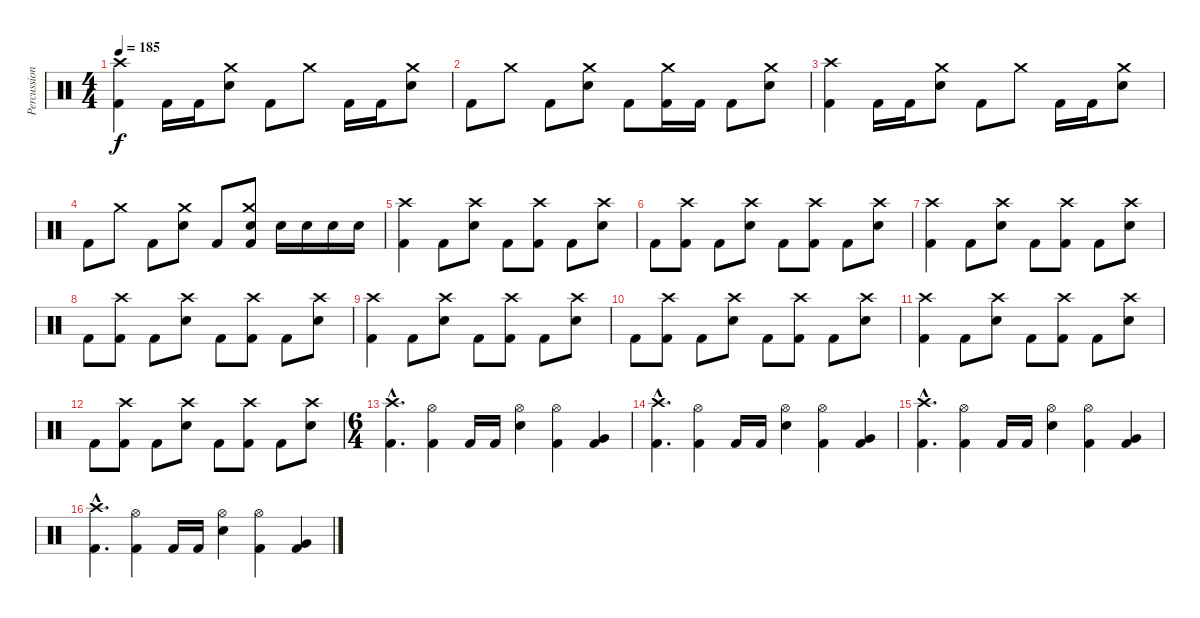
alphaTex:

\track ("Percussion" "Percussion") {instrument percussion}
\staff {score}
\articulation defaults
\ts (4 4)
\tempo 185
\clef neutral
\ks c
("Crash high (hit)" "Kick (hit) 2").4{dy f} "Kick (hit) 2".16 "Kick (hit) 2".16 ("Crash medium (hit)" "Electric Snare (hit)").8 "Kick (hit) 2".8 "Crash medium (hit)".8 "Kick (hit) 2".16 "Kick (hit) 2".16 ("Crash medium (hit)" "Electric Snare (hit)").8 |
"Kick (hit) 2".8 "Crash medium (hit)".8 "Kick (hit) 2".8 ("Crash medium (hit)" "Electric Snare (hit)").8 "Kick (hit) 2".8 ("Crash medium (hit)" "Kick (hit) 2").16 "Kick (hit) 2".16 "Kick (hit) 2".8 ("Crash medium (hit)" "Electric Snare (hit)").8 |
("Crash high (hit)" "Kick (hit) 2").4 "Kick (hit) 2".16 "Kick (hit) 2".16 ("Crash medium (hit)" "Electric Snare (hit)").8 "Kick (hit) 2".8 "Crash medium (hit)".8 "Kick (hit) 2".16 "Kick (hit) 2".16 ("Crash medium (hit)" "Electric Snare (hit)").8 |
"Kick (hit) 2".8 "Crash medium (hit)".8 "Kick (hit) 2".8 ("Crash medium (hit)" "Electric Snare (hit)").8 "Kick (hit) 2".8 ("Crash medium (hit)" "Electric Snare (hit)" "Kick (hit) 2").8 "Electric Snare (hit)".16 "Electric Snare (hit)".16 "Electric Snare (hit)".16 "Electric Snare (hit)".16 |
("Crash high (hit)" "Kick (hit) 2").4 "Kick (hit) 2".8 ("Crash high (hit)" "Electric Snare (hit)").8 "Kick (hit) 2".8 ("Crash high (hit)" "Kick (hit) 2").8 "Kick (hit) 2".8 ("Crash high (hit)" "Electric Snare (hit)").8 |
"Kick (hit) 2".8 ("Crash high (hit)" "Kick (hit) 2").8 "Kick (hit) 2".8 ("Crash high (hit)" "Electric Snare (hit)").8 "Kick (hit) 2".8 ("Crash high (hit)" "Kick (hit) 2").8 "Kick (hit) 2".8 ("Crash high (hit)" "Electric Snare (hit)").8 |
("Crash high (hit)" "Kick (hit) 2").4 "Kick (hit) 2".8 ("Crash high (hit)" "Electric Snare (hit)").8 "Kick (hit) 2".8 ("Crash high (hit)" "Kick (hit) 2").8 "Kick (hit) 2".8 ("Crash high (hit)" "Electric Snare (hit)").8 |
"Kick (hit) 2".8 ("Crash high (hit)" "Kick (hit) 2").8 "Kick (hit) 2".8 ("Crash high (hit)" "Electric Snare (hit)").8 "Kick (hit) 2".8 ("Crash high (hit)" "Kick (hit) 2").8 "Kick (hit) 2".8 ("Crash high (hit)" "Electric Snare (hit)").8 |
("Crash high (hit)" "Kick (hit) 2").4 "Kick (hit) 2".8 ("Crash high (hit)" "Electric Snare (hit)").8 "Kick (hit) 2".8 ("Crash high (hit)" "Kick (hit) 2").8 "Kick (hit) 2".8 ("Crash high (hit)" "Electric Snare (hit)").8 |
"Kick (hit) 2".8 ("Crash high (hit)" "Kick (hit) 2").8 "Kick (hit) 2".8 ("Crash high (hit)" "Electric Snare (hit)").8 "Kick (hit) 2".8 ("Crash high (hit)" "Kick (hit) 2").8 "Kick (hit) 2".8 ("Crash high (hit)" "Electric Snare (hit)").8 |
("Crash high (hit)" "Kick (hit) 2").4 "Kick (hit) 2".8 ("Crash high (hit)" "Electric Snare (hit)").8 "Kick (hit) 2".8 ("Crash high (hit)" "Kick (hit) 2").8 "Kick (hit) 2".8 ("Crash high (hit)" "Electric Snare (hit)").8 |
"Kick (hit) 2".8 ("Crash high (hit)" "Kick (hit) 2").8 "Kick (hit) 2".8 ("Crash high (hit)" "Electric Snare (hit)").8 "Kick (hit) 2".8 ("Crash high (hit)" "Kick (hit) 2").8 "Kick (hit) 2".8 ("Crash high (hit)" "Electric Snare (hit)").8 |
\ts (6 4)
("Crash high (hit)"{hac} "Kick (hit) 2"{hac}).4{d} ("Hi-Hat (open)" "Kick (hit) 2").4 "Kick (hit) 2".16 "Kick (hit) 2".16 ("Hi-Hat (open)" "Electric Snare (hit)").4 ("Hi-Hat (open)" "Kick (hit) 2").4 ("Very Low Tom (hit)" "Kick (hit) 2").4 |
("Crash high (hit)"{hac} "Kick (hit) 2"{hac}).4{d} ("Hi-Hat (open)" "Kick (hit) 2").4 "Kick (hit) 2".16 "Kick (hit) 2".16 ("Hi-Hat (open)" "Electric Snare (hit)").4 ("Hi-Hat (open)" "Kick (hit) 2").4 ("Very Low Tom (hit)" "Kick (hit) 2").4 |
("Crash high (hit)"{hac} "Kick (hit) 2"{hac}).4{d} ("Hi-Hat (open)" "Kick (hit) 2").4 "Kick (hit) 2".16 "Kick (hit) 2".16 ("Hi-Hat (open)" "Electric Snare (hit)").4 ("Hi-Hat (open)" "Kick (hit) 2").4 ("Very Low Tom (hit)" "Kick (hit) 2").4 |
("Crash high (hit)"{hac} "Kick (hit) 2"{hac}).4{d} ("Hi-Hat (open)" "Kick (hit) 2").4 "Kick (hit) 2".16 "Kick (hit) 2".16 ("Hi-Hat (open)" "Electric Snare (hit)").4 ("Hi-Hat (open)" "Kick (hit) 2").4 ("Very Low Tom (hit)" "Kick (hit) 2").4
